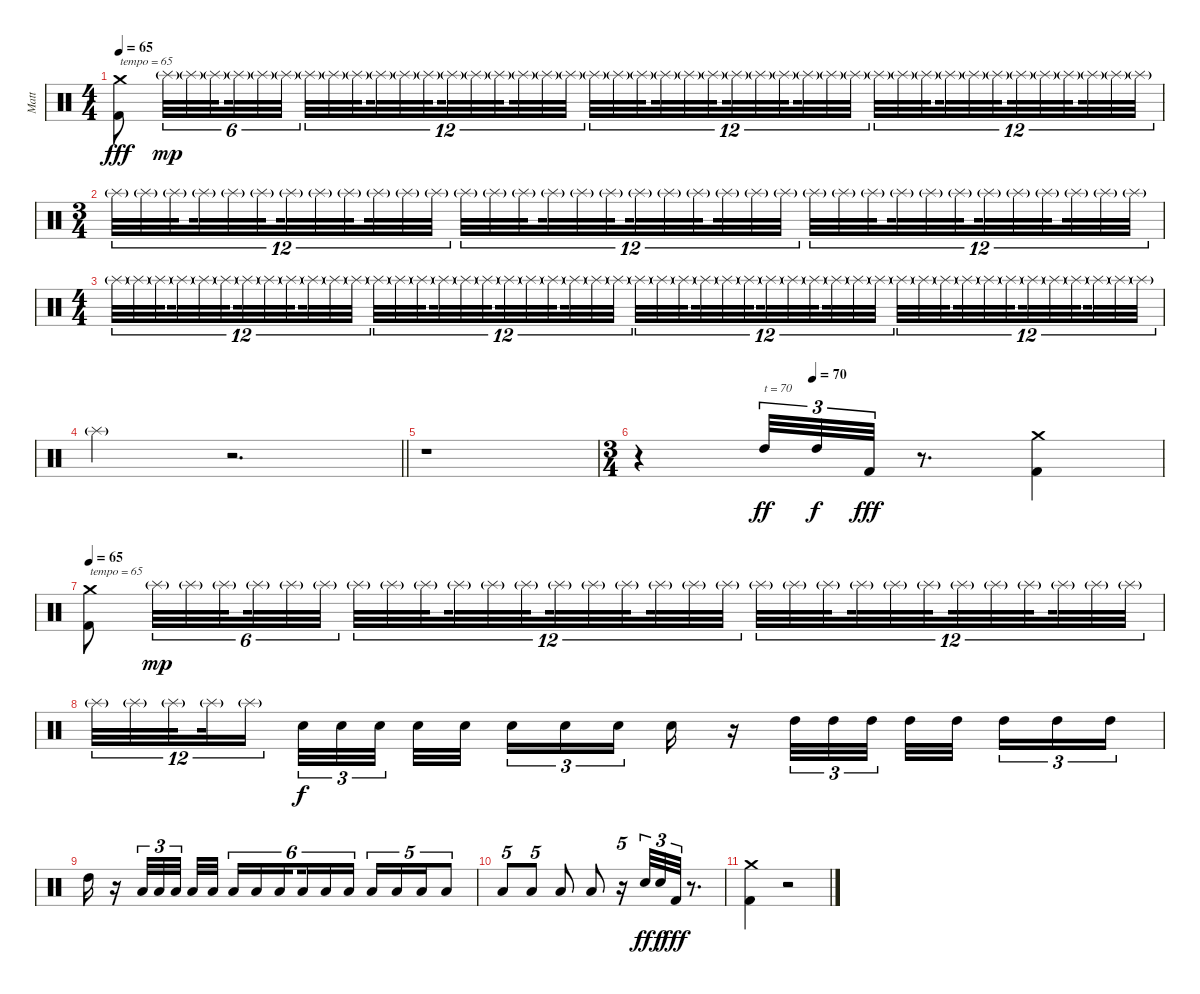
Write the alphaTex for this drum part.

\track ("Matt" "Matt") {instrument percussion}
\staff {score}
\articulation defaults
\ts (4 4)
\tempo 65
\clef neutral
\ks c
("Crash medium (hit)" "Kick (hit) 2").8{txt "tempo = 65" dy fff} "Splash (hit)"{g}.32{tu (6 4) dy mp} "Splash (hit)"{g}.32{tu (6 4)} "Splash (hit)"{g}.32{tu (6 4) beam splitsecondary} "Splash (hit)"{g}.32{tu (6 4)} "Splash (hit)"{g}.32{tu (6 4)} "Splash (hit)"{g}.32{tu (6 4)} "Splash (hit)"{g}.32{tu (12 8)} "Splash (hit)"{g}.32{tu (12 8)} "Splash (hit)"{g}.32{tu (12 8) beam splitsecondary} "Splash (hit)"{g}.32{tu (12 8)} "Splash (hit)"{g}.32{tu (12 8)} "Splash (hit)"{g}.32{tu (12 8) beam splitsecondary} "Splash (hit)"{g}.32{tu (12 8)} "Splash (hit)"{g}.32{tu (12 8)} "Splash (hit)"{g}.32{tu (12 8) beam splitsecondary} "Splash (hit)"{g}.32{tu (12 8)} "Splash (hit)"{g}.32{tu (12 8)} "Splash (hit)"{g}.32{tu (12 8)} "Splash (hit)"{g}.32{tu (12 8)} "Splash (hit)"{g}.32{tu (12 8)} "Splash (hit)"{g}.32{tu (12 8) beam splitsecondary} "Splash (hit)"{g}.32{tu (12 8)} "Splash (hit)"{g}.32{tu (12 8)} "Splash (hit)"{g}.32{tu (12 8) beam splitsecondary} "Splash (hit)"{g}.32{tu (12 8)} "Splash (hit)"{g}.32{tu (12 8)} "Splash (hit)"{g}.32{tu (12 8) beam splitsecondary} "Splash (hit)"{g}.32{tu (12 8)} "Splash (hit)"{g}.32{tu (12 8)} "Splash (hit)"{g}.32{tu (12 8)} "Splash (hit)"{g}.32{tu (12 8)} "Splash (hit)"{g}.32{tu (12 8)} "Splash (hit)"{g}.32{tu (12 8) beam splitsecondary} "Splash (hit)"{g}.32{tu (12 8)} "Splash (hit)"{g}.32{tu (12 8)} "Splash (hit)"{g}.32{tu (12 8) beam splitsecondary} "Splash (hit)"{g}.32{tu (12 8)} "Splash (hit)"{g}.32{tu (12 8)} "Splash (hit)"{g}.32{tu (12 8) beam splitsecondary} "Splash (hit)"{g}.32{tu (12 8)} "Splash (hit)"{g}.32{tu (12 8)} "Splash (hit)"{g}.32{tu (12 8)} |
\ts (3 4)
"Splash (hit)"{g}.32{tu (12 8)} "Splash (hit)"{g}.32{tu (12 8)} "Splash (hit)"{g}.32{tu (12 8) beam splitsecondary} "Splash (hit)"{g}.32{tu (12 8)} "Splash (hit)"{g}.32{tu (12 8)} "Splash (hit)"{g}.32{tu (12 8) beam splitsecondary} "Splash (hit)"{g}.32{tu (12 8)} "Splash (hit)"{g}.32{tu (12 8)} "Splash (hit)"{g}.32{tu (12 8) beam splitsecondary} "Splash (hit)"{g}.32{tu (12 8)} "Splash (hit)"{g}.32{tu (12 8)} "Splash (hit)"{g}.32{tu (12 8)} "Splash (hit)"{g}.32{tu (12 8)} "Splash (hit)"{g}.32{tu (12 8)} "Splash (hit)"{g}.32{tu (12 8) beam splitsecondary} "Splash (hit)"{g}.32{tu (12 8)} "Splash (hit)"{g}.32{tu (12 8)} "Splash (hit)"{g}.32{tu (12 8) beam splitsecondary} "Splash (hit)"{g}.32{tu (12 8)} "Splash (hit)"{g}.32{tu (12 8)} "Splash (hit)"{g}.32{tu (12 8) beam splitsecondary} "Splash (hit)"{g}.32{tu (12 8)} "Splash (hit)"{g}.32{tu (12 8)} "Splash (hit)"{g}.32{tu (12 8)} "Splash (hit)"{g}.32{tu (12 8)} "Splash (hit)"{g}.32{tu (12 8)} "Splash (hit)"{g}.32{tu (12 8) beam splitsecondary} "Splash (hit)"{g}.32{tu (12 8)} "Splash (hit)"{g}.32{tu (12 8)} "Splash (hit)"{g}.32{tu (12 8) beam splitsecondary} "Splash (hit)"{g}.32{tu (12 8)} "Splash (hit)"{g}.32{tu (12 8)} "Splash (hit)"{g}.32{tu (12 8) beam splitsecondary} "Splash (hit)"{g}.32{tu (12 8)} "Splash (hit)"{g}.32{tu (12 8)} "Splash (hit)"{g}.32{tu (12 8)} |
\ts (4 4)
"Splash (hit)"{g}.32{tu (12 8)} "Splash (hit)"{g}.32{tu (12 8)} "Splash (hit)"{g}.32{tu (12 8) beam splitsecondary} "Splash (hit)"{g}.32{tu (12 8)} "Splash (hit)"{g}.32{tu (12 8)} "Splash (hit)"{g}.32{tu (12 8) beam splitsecondary} "Splash (hit)"{g}.32{tu (12 8)} "Splash (hit)"{g}.32{tu (12 8)} "Splash (hit)"{g}.32{tu (12 8) beam splitsecondary} "Splash (hit)"{g}.32{tu (12 8)} "Splash (hit)"{g}.32{tu (12 8)} "Splash (hit)"{g}.32{tu (12 8)} "Splash (hit)"{g}.32{tu (12 8)} "Splash (hit)"{g}.32{tu (12 8)} "Splash (hit)"{g}.32{tu (12 8) beam splitsecondary} "Splash (hit)"{g}.32{tu (12 8)} "Splash (hit)"{g}.32{tu (12 8)} "Splash (hit)"{g}.32{tu (12 8) beam splitsecondary} "Splash (hit)"{g}.32{tu (12 8)} "Splash (hit)"{g}.32{tu (12 8)} "Splash (hit)"{g}.32{tu (12 8) beam splitsecondary} "Splash (hit)"{g}.32{tu (12 8)} "Splash (hit)"{g}.32{tu (12 8)} "Splash (hit)"{g}.32{tu (12 8)} "Splash (hit)"{g}.32{tu (12 8)} "Splash (hit)"{g}.32{tu (12 8)} "Splash (hit)"{g}.32{tu (12 8) beam splitsecondary} "Splash (hit)"{g}.32{tu (12 8)} "Splash (hit)"{g}.32{tu (12 8)} "Splash (hit)"{g}.32{tu (12 8) beam splitsecondary} "Splash (hit)"{g}.32{tu (12 8)} "Splash (hit)"{g}.32{tu (12 8)} "Splash (hit)"{g}.32{tu (12 8) beam splitsecondary} "Splash (hit)"{g}.32{tu (12 8)} "Splash (hit)"{g}.32{tu (12 8)} "Splash (hit)"{g}.32{tu (12 8)} "Splash (hit)"{g}.32{tu (12 8)} "Splash (hit)"{g}.32{tu (12 8)} "Splash (hit)"{g}.32{tu (12 8) beam splitsecondary} "Splash (hit)"{g}.32{tu (12 8)} "Splash (hit)"{g}.32{tu (12 8)} "Splash (hit)"{g}.32{tu (12 8) beam splitsecondary} "Splash (hit)"{g}.32{tu (12 8)} "Splash (hit)"{g}.32{tu (12 8)} "Splash (hit)"{g}.32{tu (12 8) beam splitsecondary} "Splash (hit)"{g}.32{tu (12 8)} "Splash (hit)"{g}.32{tu (12 8)} "Splash (hit)"{g}.32{tu (12 8)} |
\barLineRight lightlight "Splash (hit)"{g}.4
r.2{d} |
r.1 |
\ts (3 4)
\tempo (70 0.3333333333333333)
r.4 "High Tom (hit)".32{tu (3 2) txt "t = 70" dy ff} "High Tom (hit)".32{tu (3 2) dy f} "Kick (hit) 2".32{tu (3 2) dy fff} r.8{d} ("Crash medium (hit)" "Kick (hit) 2").4 |
\tempo 65
("Crash medium (hit)" "Kick (hit) 2").8{txt "tempo = 65"} "Splash (hit)"{g}.32{tu (6 4) dy mp} "Splash (hit)"{g}.32{tu (6 4)} "Splash (hit)"{g}.32{tu (6 4) beam splitsecondary} "Splash (hit)"{g}.32{tu (6 4)} "Splash (hit)"{g}.32{tu (6 4)} "Splash (hit)"{g}.32{tu (6 4)} "Splash (hit)"{g}.32{tu (12 8)} "Splash (hit)"{g}.32{tu (12 8)} "Splash (hit)"{g}.32{tu (12 8) beam splitsecondary} "Splash (hit)"{g}.32{tu (12 8)} "Splash (hit)"{g}.32{tu (12 8)} "Splash (hit)"{g}.32{tu (12 8) beam splitsecondary} "Splash (hit)"{g}.32{tu (12 8)} "Splash (hit)"{g}.32{tu (12 8)} "Splash (hit)"{g}.32{tu (12 8) beam splitsecondary} "Splash (hit)"{g}.32{tu (12 8)} "Splash (hit)"{g}.32{tu (12 8)} "Splash (hit)"{g}.32{tu (12 8)} "Splash (hit)"{g}.32{tu (12 8)} "Splash (hit)"{g}.32{tu (12 8)} "Splash (hit)"{g}.32{tu (12 8) beam splitsecondary} "Splash (hit)"{g}.32{tu (12 8)} "Splash (hit)"{g}.32{tu (12 8)} "Splash (hit)"{g}.32{tu (12 8) beam splitsecondary} "Splash (hit)"{g}.32{tu (12 8)} "Splash (hit)"{g}.32{tu (12 8)} "Splash (hit)"{g}.32{tu (12 8) beam splitsecondary} "Splash (hit)"{g}.32{tu (12 8)} "Splash (hit)"{g}.32{tu (12 8)} "Splash (hit)"{g}.32{tu (12 8)} |
"Splash (hit)"{g}.32{tu (12 8)} "Splash (hit)"{g}.32{tu (12 8)} "Splash (hit)"{g}.32{tu (12 8) beam splitsecondary} "Splash (hit)"{g}.32{tu (12 8)} "Splash (hit)"{g}.16{tu (12 8) beam splitsecondary} "Snare (hit) 2".32{tu (3 2) dy f} "Snare (hit) 2".32{tu (3 2)} "Snare (hit) 2".32{tu (3 2) beam splitsecondary} "Snare (hit) 2".32 "Snare (hit) 2".32 "Snare (hit) 2".16{tu (3 2)} "Snare (hit) 2".16{tu (3 2)} "Snare (hit) 2".16{tu (3 2) beam splitsecondary} "Snare (hit) 2".16 r.16 "High Tom (hit)".32{tu (3 2)} "High Tom (hit)".32{tu (3 2)} "High Tom (hit)".32{tu (3 2) beam splitsecondary} "High Tom (hit)".32 "High Tom (hit)".32{beam splitsecondary} "High Tom (hit)".16{tu (3 2)} "High Tom (hit)".16{tu (3 2)} "High Tom (hit)".16{tu (3 2)} |
"High Tom (hit)".16 r.16 "Low Tom (hit)".32{tu (3 2)} "Low Tom (hit)".32{tu (3 2)} "Low Tom (hit)".32{tu (3 2) beam splitsecondary} "Low Tom (hit)".32 "Low Tom (hit)".32 "Low Tom (hit)".16{tu (6 4)} "Low Tom (hit)".16{tu (6 4)} "Low Tom (hit)".16{tu (6 4) beam splitsecondary} "Low Tom (hit)".16{tu (6 4)} "Low Tom (hit)".16{tu (6 4)} "Low Tom (hit)".16{tu (6 4)} "Low Tom (hit)".16{tu (5 4)} "Low Tom (hit)".16{tu (5 4)} "Low Tom (hit)".16{tu (5 4)} "Low Tom (hit)".8{tu (5 4)} |
"Low Tom (hit)".8{tu (5 4)} "Low Tom (hit)".8{tu (5 4)} "Low Tom (hit)".8 "Low Tom (hit)".8 r.16{tu (5 4)} "Snare (hit) 2".32{tu (3 2) dy ff} "Snare (hit) 2".32{tu (3 2) dy f} "Kick (hit) 2".32{tu (3 2) dy fff} r.8{d} |
("Crash medium (hit)" "Kick (hit) 2").4 r.2
